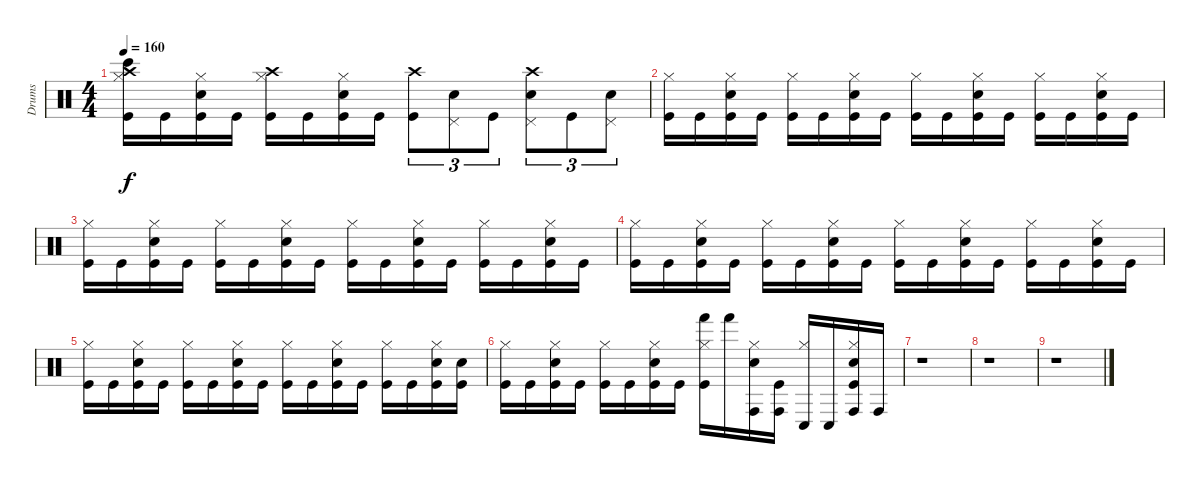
\track ("Drums" "Drums") {instrument percussion}
\staff {score}
\articulation defaults
\ts (4 4)
\tempo 160
\clef neutral
\ks c
("Crash high (hit)" "Hi-Hat (closed)" "Bongo High (hit)" "Kick (hit)").16{dy f} "Kick (hit)".16 ("Hi-Hat (closed)" "Electric Snare (hit)" "Kick (hit)").16 "Kick (hit)".16 ("Crash high (hit)" "Hi-Hat (closed)" "Kick (hit)").16 "Kick (hit)".16 ("Hi-Hat (closed)" "Electric Snare (hit)" "Kick (hit)").16 "Kick (hit)".16 ("Crash high (hit)" "Kick (hit)").8{tu (3 2)} ("Pedal Hi-Hat (hit)" "Electric Snare (hit)").8{tu (3 2)} "Kick (hit)".8{tu (3 2)} ("Crash high (hit)" "Pedal Hi-Hat (hit)" "Electric Snare (hit)").8{tu (3 2)} "Kick (hit)".8{tu (3 2)} ("Pedal Hi-Hat (hit)" "Electric Snare (hit)").8{tu (3 2)} |
("Hi-Hat (closed)" "Kick (hit)").16 "Kick (hit)".16 ("Hi-Hat (closed)" "Electric Snare (hit)" "Kick (hit)").16 "Kick (hit)".16 ("Hi-Hat (closed)" "Kick (hit)").16 "Kick (hit)".16 ("Hi-Hat (closed)" "Electric Snare (hit)" "Kick (hit)").16 "Kick (hit)".16 ("Hi-Hat (closed)" "Kick (hit)").16 "Kick (hit)".16 ("Hi-Hat (closed)" "Electric Snare (hit)" "Kick (hit)").16 "Kick (hit)".16 ("Hi-Hat (closed)" "Kick (hit)").16 "Kick (hit)".16 ("Hi-Hat (closed)" "Electric Snare (hit)" "Kick (hit)").16 "Kick (hit)".16 |
("Hi-Hat (closed)" "Kick (hit)").16 "Kick (hit)".16 ("Hi-Hat (closed)" "Electric Snare (hit)" "Kick (hit)").16 "Kick (hit)".16 ("Hi-Hat (closed)" "Kick (hit)").16 "Kick (hit)".16 ("Hi-Hat (closed)" "Electric Snare (hit)" "Kick (hit)").16 "Kick (hit)".16 ("Hi-Hat (closed)" "Kick (hit)").16 "Kick (hit)".16 ("Hi-Hat (closed)" "Electric Snare (hit)" "Kick (hit)").16 "Kick (hit)".16 ("Hi-Hat (closed)" "Kick (hit)").16 "Kick (hit)".16 ("Hi-Hat (closed)" "Electric Snare (hit)" "Kick (hit)").16 "Kick (hit)".16 |
("Hi-Hat (closed)" "Kick (hit)").16 "Kick (hit)".16 ("Hi-Hat (closed)" "Electric Snare (hit)" "Kick (hit)").16 "Kick (hit)".16 ("Hi-Hat (closed)" "Kick (hit)").16 "Kick (hit)".16 ("Hi-Hat (closed)" "Electric Snare (hit)" "Kick (hit)").16 "Kick (hit)".16 ("Hi-Hat (closed)" "Kick (hit)").16 "Kick (hit)".16 ("Hi-Hat (closed)" "Electric Snare (hit)" "Kick (hit)").16 "Kick (hit)".16 ("Hi-Hat (closed)" "Kick (hit)").16 "Kick (hit)".16 ("Hi-Hat (closed)" "Electric Snare (hit)" "Kick (hit)").16 "Kick (hit)".16 |
("Hi-Hat (closed)" "Kick (hit)").16 "Kick (hit)".16 ("Hi-Hat (closed)" "Electric Snare (hit)" "Kick (hit)").16 "Kick (hit)".16 ("Hi-Hat (closed)" "Kick (hit)").16 "Kick (hit)".16 ("Hi-Hat (closed)" "Electric Snare (hit)" "Kick (hit)").16 "Kick (hit)".16 ("Hi-Hat (closed)" "Kick (hit)").16 "Kick (hit)".16 ("Hi-Hat (closed)" "Electric Snare (hit)" "Kick (hit)").16 "Kick (hit)".16 ("Hi-Hat (closed)" "Kick (hit)").16 "Kick (hit)".16 ("Hi-Hat (closed)" "Electric Snare (hit)" "Kick (hit)").16 ("Electric Snare (hit)" "Kick (hit)").16 |
("Hi-Hat (closed)" "Kick (hit)").16 "Kick (hit)".16 ("Hi-Hat (closed)" "Electric Snare (hit)" "Kick (hit)").16 "Kick (hit)".16 ("Hi-Hat (closed)" "Kick (hit)").16 "Kick (hit)".16 ("Hi-Hat (closed)" "Electric Snare (hit)" "Kick (hit)").16 "Kick (hit)".16 ("Hi-Hat (closed)" "Hand (hit)" "Kick (hit)").16 "Hand (hit)".16 ("Hi-Hat (closed)" "Electric Snare (hit)" "Conga high (hit)").16 ("Conga high (hit)" "Kick (hit)").16 ("Hi-Hat (closed)" "Conga low (hit)").16 "Conga low (hit)".16 ("Hi-Hat (closed)" "Electric Snare (hit)" "Conga high (hit)" "Kick (hit)").16 "Conga high (hit)".16 |
r.1 |
r.1 |
r.1
